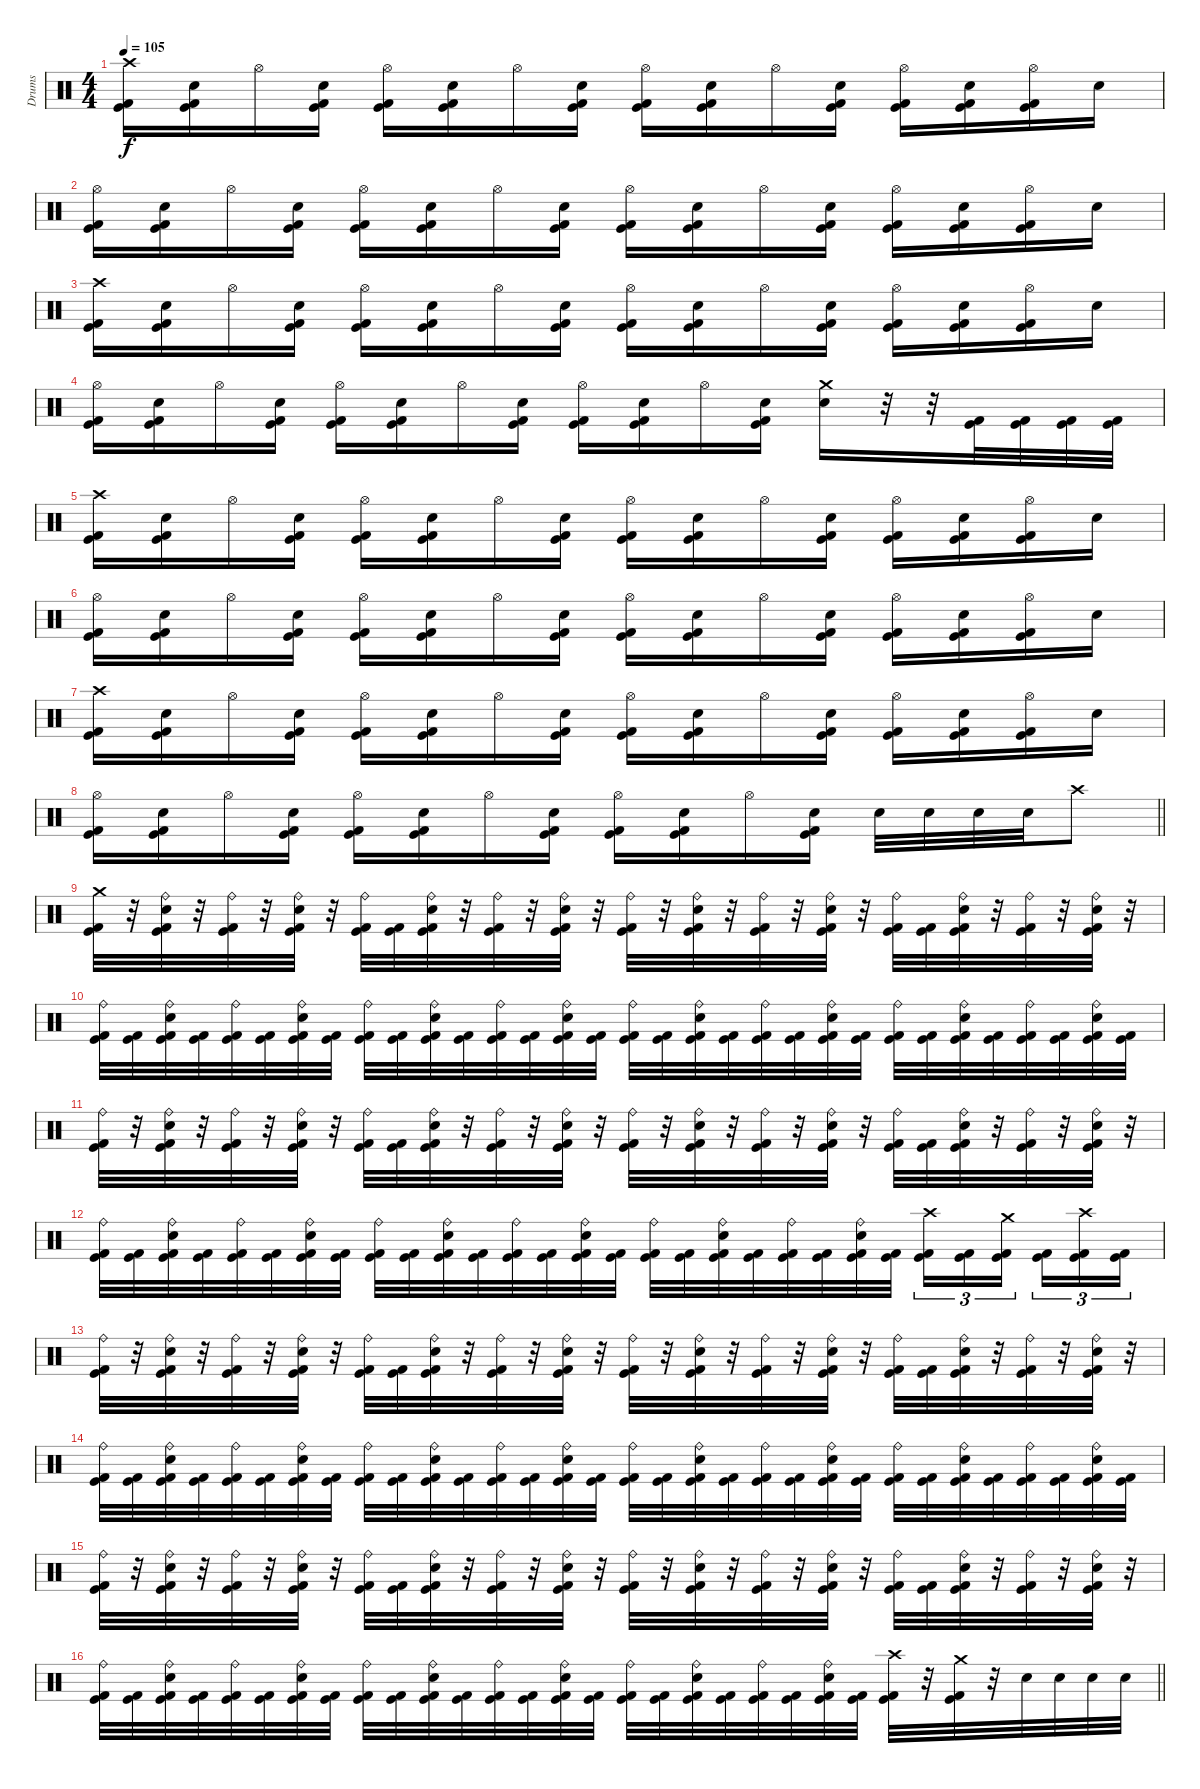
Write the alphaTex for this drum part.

\track ("Drums" "Drums") {instrument percussion}
\staff {score}
\articulation defaults
\ts (4 4)
\tempo 105
\clef neutral
\ks c
("Crash high (hit)" "Kick (hit)" "Kick (hit) 2").16{dy f} ("Electric Snare (hit)" "Kick (hit)" "Kick (hit) 2").16 "Hi-Hat (open)".16 ("Electric Snare (hit)" "Kick (hit)" "Kick (hit) 2").16 ("Hi-Hat (open)" "Kick (hit)" "Kick (hit) 2").16 ("Electric Snare (hit)" "Kick (hit)" "Kick (hit) 2").16 "Hi-Hat (open)".16 ("Electric Snare (hit)" "Kick (hit)" "Kick (hit) 2").16 ("Hi-Hat (open)" "Kick (hit)" "Kick (hit) 2").16 ("Electric Snare (hit)" "Kick (hit)" "Kick (hit) 2").16 "Hi-Hat (open)".16 ("Electric Snare (hit)" "Kick (hit)" "Kick (hit) 2").16 ("Hi-Hat (open)" "Kick (hit)" "Kick (hit) 2").16 ("Electric Snare (hit)" "Kick (hit)" "Kick (hit) 2").16 ("Hi-Hat (open)" "Kick (hit)" "Kick (hit) 2").16 "Electric Snare (hit)".16 |
("Hi-Hat (open)" "Kick (hit)" "Kick (hit) 2").16 ("Electric Snare (hit)" "Kick (hit)" "Kick (hit) 2").16 "Hi-Hat (open)".16 ("Electric Snare (hit)" "Kick (hit)" "Kick (hit) 2").16 ("Hi-Hat (open)" "Kick (hit)" "Kick (hit) 2").16 ("Electric Snare (hit)" "Kick (hit)" "Kick (hit) 2").16 "Hi-Hat (open)".16 ("Electric Snare (hit)" "Kick (hit)" "Kick (hit) 2").16 ("Hi-Hat (open)" "Kick (hit)" "Kick (hit) 2").16 ("Electric Snare (hit)" "Kick (hit)" "Kick (hit) 2").16 "Hi-Hat (open)".16 ("Electric Snare (hit)" "Kick (hit)" "Kick (hit) 2").16 ("Hi-Hat (open)" "Kick (hit)" "Kick (hit) 2").16 ("Electric Snare (hit)" "Kick (hit)" "Kick (hit) 2").16 ("Hi-Hat (open)" "Kick (hit)" "Kick (hit) 2").16 "Electric Snare (hit)".16 |
("Crash high (hit)" "Kick (hit)" "Kick (hit) 2").16 ("Electric Snare (hit)" "Kick (hit)" "Kick (hit) 2").16 "Hi-Hat (open)".16 ("Electric Snare (hit)" "Kick (hit)" "Kick (hit) 2").16 ("Hi-Hat (open)" "Kick (hit)" "Kick (hit) 2").16 ("Electric Snare (hit)" "Kick (hit)" "Kick (hit) 2").16 "Hi-Hat (open)".16 ("Electric Snare (hit)" "Kick (hit)" "Kick (hit) 2").16 ("Hi-Hat (open)" "Kick (hit)" "Kick (hit) 2").16 ("Electric Snare (hit)" "Kick (hit)" "Kick (hit) 2").16 "Hi-Hat (open)".16 ("Electric Snare (hit)" "Kick (hit)" "Kick (hit) 2").16 ("Hi-Hat (open)" "Kick (hit)" "Kick (hit) 2").16 ("Electric Snare (hit)" "Kick (hit)" "Kick (hit) 2").16 ("Hi-Hat (open)" "Kick (hit)" "Kick (hit) 2").16 "Electric Snare (hit)".16 |
("Hi-Hat (open)" "Kick (hit)" "Kick (hit) 2").16 ("Electric Snare (hit)" "Kick (hit)" "Kick (hit) 2").16 "Hi-Hat (open)".16 ("Electric Snare (hit)" "Kick (hit)" "Kick (hit) 2").16 ("Hi-Hat (open)" "Kick (hit)" "Kick (hit) 2").16 ("Electric Snare (hit)" "Kick (hit)" "Kick (hit) 2").16 "Hi-Hat (open)".16 ("Electric Snare (hit)" "Kick (hit)" "Kick (hit) 2").16 ("Hi-Hat (open)" "Kick (hit)" "Kick (hit) 2").16 ("Electric Snare (hit)" "Kick (hit)" "Kick (hit) 2").16 "Hi-Hat (open)".16 ("Electric Snare (hit)" "Kick (hit)" "Kick (hit) 2").16 ("Crash medium (hit)" "Electric Snare (hit)").16 r.32 r.32 ("Kick (hit)" "Kick (hit) 2").32 ("Kick (hit)" "Kick (hit) 2").32 ("Kick (hit)" "Kick (hit) 2").32 ("Kick (hit)" "Kick (hit) 2").32 |
("Crash high (hit)" "Kick (hit)" "Kick (hit) 2").16 ("Electric Snare (hit)" "Kick (hit)" "Kick (hit) 2").16 "Hi-Hat (open)".16 ("Electric Snare (hit)" "Kick (hit)" "Kick (hit) 2").16 ("Hi-Hat (open)" "Kick (hit)" "Kick (hit) 2").16 ("Electric Snare (hit)" "Kick (hit)" "Kick (hit) 2").16 "Hi-Hat (open)".16 ("Electric Snare (hit)" "Kick (hit)" "Kick (hit) 2").16 ("Hi-Hat (open)" "Kick (hit)" "Kick (hit) 2").16 ("Electric Snare (hit)" "Kick (hit)" "Kick (hit) 2").16 "Hi-Hat (open)".16 ("Electric Snare (hit)" "Kick (hit)" "Kick (hit) 2").16 ("Hi-Hat (open)" "Kick (hit)" "Kick (hit) 2").16 ("Electric Snare (hit)" "Kick (hit)" "Kick (hit) 2").16 ("Hi-Hat (open)" "Kick (hit)" "Kick (hit) 2").16 "Electric Snare (hit)".16 |
("Hi-Hat (open)" "Kick (hit)" "Kick (hit) 2").16 ("Electric Snare (hit)" "Kick (hit)" "Kick (hit) 2").16 "Hi-Hat (open)".16 ("Electric Snare (hit)" "Kick (hit)" "Kick (hit) 2").16 ("Hi-Hat (open)" "Kick (hit)" "Kick (hit) 2").16 ("Electric Snare (hit)" "Kick (hit)" "Kick (hit) 2").16 "Hi-Hat (open)".16 ("Electric Snare (hit)" "Kick (hit)" "Kick (hit) 2").16 ("Hi-Hat (open)" "Kick (hit)" "Kick (hit) 2").16 ("Electric Snare (hit)" "Kick (hit)" "Kick (hit) 2").16 "Hi-Hat (open)".16 ("Electric Snare (hit)" "Kick (hit)" "Kick (hit) 2").16 ("Hi-Hat (open)" "Kick (hit)" "Kick (hit) 2").16 ("Electric Snare (hit)" "Kick (hit)" "Kick (hit) 2").16 ("Hi-Hat (open)" "Kick (hit)" "Kick (hit) 2").16 "Electric Snare (hit)".16 |
("Crash high (hit)" "Kick (hit)" "Kick (hit) 2").16 ("Electric Snare (hit)" "Kick (hit)" "Kick (hit) 2").16 "Hi-Hat (open)".16 ("Electric Snare (hit)" "Kick (hit)" "Kick (hit) 2").16 ("Hi-Hat (open)" "Kick (hit)" "Kick (hit) 2").16 ("Electric Snare (hit)" "Kick (hit)" "Kick (hit) 2").16 "Hi-Hat (open)".16 ("Electric Snare (hit)" "Kick (hit)" "Kick (hit) 2").16 ("Hi-Hat (open)" "Kick (hit)" "Kick (hit) 2").16 ("Electric Snare (hit)" "Kick (hit)" "Kick (hit) 2").16 "Hi-Hat (open)".16 ("Electric Snare (hit)" "Kick (hit)" "Kick (hit) 2").16 ("Hi-Hat (open)" "Kick (hit)" "Kick (hit) 2").16 ("Electric Snare (hit)" "Kick (hit)" "Kick (hit) 2").16 ("Hi-Hat (open)" "Kick (hit)" "Kick (hit) 2").16 "Electric Snare (hit)".16 |
\barLineRight lightlight
("Hi-Hat (open)" "Kick (hit)" "Kick (hit) 2").16 ("Electric Snare (hit)" "Kick (hit)" "Kick (hit) 2").16 "Hi-Hat (open)".16 ("Electric Snare (hit)" "Kick (hit)" "Kick (hit) 2").16 ("Hi-Hat (open)" "Kick (hit)" "Kick (hit) 2").16 ("Electric Snare (hit)" "Kick (hit)" "Kick (hit) 2").16 "Hi-Hat (open)".16 ("Electric Snare (hit)" "Kick (hit)" "Kick (hit) 2").16 ("Hi-Hat (open)" "Kick (hit)" "Kick (hit) 2").16 ("Electric Snare (hit)" "Kick (hit)" "Kick (hit) 2").16 "Hi-Hat (open)".16 ("Electric Snare (hit)" "Kick (hit)" "Kick (hit) 2").16 "Electric Snare (hit)".32 "Electric Snare (hit)".32 "Electric Snare (hit)".32 "Electric Snare (hit)".32 "Crash high (hit)".8 |
("Crash medium (hit)" "Kick (hit)" "Kick (hit) 2").32 r.32 ("Ride (bell)" "Electric Snare (hit)" "Kick (hit)" "Kick (hit) 2").32 r.32 ("Ride (bell)" "Kick (hit)" "Kick (hit) 2").32 r.32 ("Ride (bell)" "Electric Snare (hit)" "Kick (hit)" "Kick (hit) 2").32 r.32 ("Ride (bell)" "Kick (hit)" "Kick (hit) 2").32 ("Kick (hit)" "Kick (hit) 2").32 ("Ride (bell)" "Electric Snare (hit)" "Kick (hit)" "Kick (hit) 2").32 r.32 ("Ride (bell)" "Kick (hit)" "Kick (hit) 2").32 r.32 ("Ride (bell)" "Electric Snare (hit)" "Kick (hit)" "Kick (hit) 2").32 r.32 ("Ride (bell)" "Kick (hit)" "Kick (hit) 2").32 r.32 ("Ride (bell)" "Electric Snare (hit)" "Kick (hit)" "Kick (hit) 2").32 r.32 ("Ride (bell)" "Kick (hit)" "Kick (hit) 2").32 r.32 ("Ride (bell)" "Electric Snare (hit)" "Kick (hit)" "Kick (hit) 2").32 r.32 ("Ride (bell)" "Kick (hit)" "Kick (hit) 2").32 ("Kick (hit)" "Kick (hit) 2").32 ("Ride (bell)" "Electric Snare (hit)" "Kick (hit)" "Kick (hit) 2").32 r.32 ("Ride (bell)" "Kick (hit)" "Kick (hit) 2").32 r.32 ("Ride (bell)" "Electric Snare (hit)" "Kick (hit)" "Kick (hit) 2").32 r.32 |
("Ride (bell)" "Kick (hit)" "Kick (hit) 2").32 ("Kick (hit)" "Kick (hit) 2").32 ("Ride (bell)" "Electric Snare (hit)" "Kick (hit)" "Kick (hit) 2").32 ("Kick (hit)" "Kick (hit) 2").32 ("Ride (bell)" "Kick (hit)" "Kick (hit) 2").32 ("Kick (hit)" "Kick (hit) 2").32 ("Ride (bell)" "Electric Snare (hit)" "Kick (hit)" "Kick (hit) 2").32 ("Kick (hit)" "Kick (hit) 2").32 ("Ride (bell)" "Kick (hit)" "Kick (hit) 2").32 ("Kick (hit)" "Kick (hit) 2").32 ("Ride (bell)" "Electric Snare (hit)" "Kick (hit)" "Kick (hit) 2").32 ("Kick (hit)" "Kick (hit) 2").32 ("Ride (bell)" "Kick (hit)" "Kick (hit) 2").32 ("Kick (hit)" "Kick (hit) 2").32 ("Ride (bell)" "Electric Snare (hit)" "Kick (hit)" "Kick (hit) 2").32 ("Kick (hit)" "Kick (hit) 2").32 ("Ride (bell)" "Kick (hit)" "Kick (hit) 2").32 ("Kick (hit)" "Kick (hit) 2").32 ("Ride (bell)" "Electric Snare (hit)" "Kick (hit)" "Kick (hit) 2").32 ("Kick (hit)" "Kick (hit) 2").32 ("Ride (bell)" "Kick (hit)" "Kick (hit) 2").32 ("Kick (hit)" "Kick (hit) 2").32 ("Ride (bell)" "Electric Snare (hit)" "Kick (hit)" "Kick (hit) 2").32 ("Kick (hit)" "Kick (hit) 2").32 ("Ride (bell)" "Kick (hit)" "Kick (hit) 2").32 ("Kick (hit)" "Kick (hit) 2").32 ("Ride (bell)" "Electric Snare (hit)" "Kick (hit)" "Kick (hit) 2").32 ("Kick (hit)" "Kick (hit) 2").32 ("Ride (bell)" "Kick (hit)" "Kick (hit) 2").32 ("Kick (hit)" "Kick (hit) 2").32 ("Ride (bell)" "Electric Snare (hit)" "Kick (hit)" "Kick (hit) 2").32 ("Kick (hit)" "Kick (hit) 2").32 |
("Ride (bell)" "Kick (hit)" "Kick (hit) 2").32 r.32 ("Ride (bell)" "Electric Snare (hit)" "Kick (hit)" "Kick (hit) 2").32 r.32 ("Ride (bell)" "Kick (hit)" "Kick (hit) 2").32 r.32 ("Ride (bell)" "Electric Snare (hit)" "Kick (hit)" "Kick (hit) 2").32 r.32 ("Ride (bell)" "Kick (hit)" "Kick (hit) 2").32 ("Kick (hit)" "Kick (hit) 2").32 ("Ride (bell)" "Electric Snare (hit)" "Kick (hit)" "Kick (hit) 2").32 r.32 ("Ride (bell)" "Kick (hit)" "Kick (hit) 2").32 r.32 ("Ride (bell)" "Electric Snare (hit)" "Kick (hit)" "Kick (hit) 2").32 r.32 ("Ride (bell)" "Kick (hit)" "Kick (hit) 2").32 r.32 ("Ride (bell)" "Electric Snare (hit)" "Kick (hit)" "Kick (hit) 2").32 r.32 ("Ride (bell)" "Kick (hit)" "Kick (hit) 2").32 r.32 ("Ride (bell)" "Electric Snare (hit)" "Kick (hit)" "Kick (hit) 2").32 r.32 ("Ride (bell)" "Kick (hit)" "Kick (hit) 2").32 ("Kick (hit)" "Kick (hit) 2").32 ("Ride (bell)" "Electric Snare (hit)" "Kick (hit)" "Kick (hit) 2").32 r.32 ("Ride (bell)" "Kick (hit)" "Kick (hit) 2").32 r.32 ("Ride (bell)" "Electric Snare (hit)" "Kick (hit)" "Kick (hit) 2").32 r.32 |
("Ride (bell)" "Kick (hit)" "Kick (hit) 2").32 ("Kick (hit)" "Kick (hit) 2").32 ("Ride (bell)" "Electric Snare (hit)" "Kick (hit)" "Kick (hit) 2").32 ("Kick (hit)" "Kick (hit) 2").32 ("Ride (bell)" "Kick (hit)" "Kick (hit) 2").32 ("Kick (hit)" "Kick (hit) 2").32 ("Ride (bell)" "Electric Snare (hit)" "Kick (hit)" "Kick (hit) 2").32 ("Kick (hit)" "Kick (hit) 2").32 ("Ride (bell)" "Kick (hit)" "Kick (hit) 2").32 ("Kick (hit)" "Kick (hit) 2").32 ("Ride (bell)" "Electric Snare (hit)" "Kick (hit)" "Kick (hit) 2").32 ("Kick (hit)" "Kick (hit) 2").32 ("Ride (bell)" "Kick (hit)" "Kick (hit) 2").32 ("Kick (hit)" "Kick (hit) 2").32 ("Ride (bell)" "Electric Snare (hit)" "Kick (hit)" "Kick (hit) 2").32 ("Kick (hit)" "Kick (hit) 2").32 ("Ride (bell)" "Kick (hit)" "Kick (hit) 2").32 ("Kick (hit)" "Kick (hit) 2").32 ("Ride (bell)" "Electric Snare (hit)" "Kick (hit)" "Kick (hit) 2").32 ("Kick (hit)" "Kick (hit) 2").32 ("Ride (bell)" "Kick (hit)" "Kick (hit) 2").32 ("Kick (hit)" "Kick (hit) 2").32 ("Ride (bell)" "Electric Snare (hit)" "Kick (hit)" "Kick (hit) 2").32 ("Kick (hit)" "Kick (hit) 2").32 ("Crash high (hit)" "Kick (hit)" "Kick (hit) 2").16{tu (3 2)} ("Kick (hit)" "Kick (hit) 2").16{tu (3 2)} ("Crash medium (hit)" "Kick (hit)" "Kick (hit) 2").16{tu (3 2) beam splitsecondary} ("Kick (hit)" "Kick (hit) 2").16{tu (3 2)} ("Crash high (hit)" "Kick (hit)" "Kick (hit) 2").16{tu (3 2)} ("Kick (hit)" "Kick (hit) 2").16{tu (3 2)} |
("Ride (bell)" "Kick (hit)" "Kick (hit) 2").32 r.32 ("Ride (bell)" "Electric Snare (hit)" "Kick (hit)" "Kick (hit) 2").32 r.32 ("Ride (bell)" "Kick (hit)" "Kick (hit) 2").32 r.32 ("Ride (bell)" "Electric Snare (hit)" "Kick (hit)" "Kick (hit) 2").32 r.32 ("Ride (bell)" "Kick (hit)" "Kick (hit) 2").32 ("Kick (hit)" "Kick (hit) 2").32 ("Ride (bell)" "Electric Snare (hit)" "Kick (hit)" "Kick (hit) 2").32 r.32 ("Ride (bell)" "Kick (hit)" "Kick (hit) 2").32 r.32 ("Ride (bell)" "Electric Snare (hit)" "Kick (hit)" "Kick (hit) 2").32 r.32 ("Ride (bell)" "Kick (hit)" "Kick (hit) 2").32 r.32 ("Ride (bell)" "Electric Snare (hit)" "Kick (hit)" "Kick (hit) 2").32 r.32 ("Ride (bell)" "Kick (hit)" "Kick (hit) 2").32 r.32 ("Ride (bell)" "Electric Snare (hit)" "Kick (hit)" "Kick (hit) 2").32 r.32 ("Ride (bell)" "Kick (hit)" "Kick (hit) 2").32 ("Kick (hit)" "Kick (hit) 2").32 ("Ride (bell)" "Electric Snare (hit)" "Kick (hit)" "Kick (hit) 2").32 r.32 ("Ride (bell)" "Kick (hit)" "Kick (hit) 2").32 r.32 ("Ride (bell)" "Electric Snare (hit)" "Kick (hit)" "Kick (hit) 2").32 r.32 |
("Ride (bell)" "Kick (hit)" "Kick (hit) 2").32 ("Kick (hit)" "Kick (hit) 2").32 ("Ride (bell)" "Electric Snare (hit)" "Kick (hit)" "Kick (hit) 2").32 ("Kick (hit)" "Kick (hit) 2").32 ("Ride (bell)" "Kick (hit)" "Kick (hit) 2").32 ("Kick (hit)" "Kick (hit) 2").32 ("Ride (bell)" "Electric Snare (hit)" "Kick (hit)" "Kick (hit) 2").32 ("Kick (hit)" "Kick (hit) 2").32 ("Ride (bell)" "Kick (hit)" "Kick (hit) 2").32 ("Kick (hit)" "Kick (hit) 2").32 ("Ride (bell)" "Electric Snare (hit)" "Kick (hit)" "Kick (hit) 2").32 ("Kick (hit)" "Kick (hit) 2").32 ("Ride (bell)" "Kick (hit)" "Kick (hit) 2").32 ("Kick (hit)" "Kick (hit) 2").32 ("Ride (bell)" "Electric Snare (hit)" "Kick (hit)" "Kick (hit) 2").32 ("Kick (hit)" "Kick (hit) 2").32 ("Ride (bell)" "Kick (hit)" "Kick (hit) 2").32 ("Kick (hit)" "Kick (hit) 2").32 ("Ride (bell)" "Electric Snare (hit)" "Kick (hit)" "Kick (hit) 2").32 ("Kick (hit)" "Kick (hit) 2").32 ("Ride (bell)" "Kick (hit)" "Kick (hit) 2").32 ("Kick (hit)" "Kick (hit) 2").32 ("Ride (bell)" "Electric Snare (hit)" "Kick (hit)" "Kick (hit) 2").32 ("Kick (hit)" "Kick (hit) 2").32 ("Ride (bell)" "Kick (hit)" "Kick (hit) 2").32 ("Kick (hit)" "Kick (hit) 2").32 ("Ride (bell)" "Electric Snare (hit)" "Kick (hit)" "Kick (hit) 2").32 ("Kick (hit)" "Kick (hit) 2").32 ("Ride (bell)" "Kick (hit)" "Kick (hit) 2").32 ("Kick (hit)" "Kick (hit) 2").32 ("Ride (bell)" "Electric Snare (hit)" "Kick (hit)" "Kick (hit) 2").32 ("Kick (hit)" "Kick (hit) 2").32 |
("Ride (bell)" "Kick (hit)" "Kick (hit) 2").32 r.32 ("Ride (bell)" "Electric Snare (hit)" "Kick (hit)" "Kick (hit) 2").32 r.32 ("Ride (bell)" "Kick (hit)" "Kick (hit) 2").32 r.32 ("Ride (bell)" "Electric Snare (hit)" "Kick (hit)" "Kick (hit) 2").32 r.32 ("Ride (bell)" "Kick (hit)" "Kick (hit) 2").32 ("Kick (hit)" "Kick (hit) 2").32 ("Ride (bell)" "Electric Snare (hit)" "Kick (hit)" "Kick (hit) 2").32 r.32 ("Ride (bell)" "Kick (hit)" "Kick (hit) 2").32 r.32 ("Ride (bell)" "Electric Snare (hit)" "Kick (hit)" "Kick (hit) 2").32 r.32 ("Ride (bell)" "Kick (hit)" "Kick (hit) 2").32 r.32 ("Ride (bell)" "Electric Snare (hit)" "Kick (hit)" "Kick (hit) 2").32 r.32 ("Ride (bell)" "Kick (hit)" "Kick (hit) 2").32 r.32 ("Ride (bell)" "Electric Snare (hit)" "Kick (hit)" "Kick (hit) 2").32 r.32 ("Ride (bell)" "Kick (hit)" "Kick (hit) 2").32 ("Kick (hit)" "Kick (hit) 2").32 ("Ride (bell)" "Electric Snare (hit)" "Kick (hit)" "Kick (hit) 2").32 r.32 ("Ride (bell)" "Kick (hit)" "Kick (hit) 2").32 r.32 ("Ride (bell)" "Electric Snare (hit)" "Kick (hit)" "Kick (hit) 2").32 r.32 |
\barLineRight lightlight
("Ride (bell)" "Kick (hit)" "Kick (hit) 2").32 ("Kick (hit)" "Kick (hit) 2").32 ("Ride (bell)" "Electric Snare (hit)" "Kick (hit)" "Kick (hit) 2").32 ("Kick (hit)" "Kick (hit) 2").32 ("Ride (bell)" "Kick (hit)" "Kick (hit) 2").32 ("Kick (hit)" "Kick (hit) 2").32 ("Ride (bell)" "Electric Snare (hit)" "Kick (hit)" "Kick (hit) 2").32 ("Kick (hit)" "Kick (hit) 2").32 ("Ride (bell)" "Kick (hit)" "Kick (hit) 2").32 ("Kick (hit)" "Kick (hit) 2").32 ("Ride (bell)" "Electric Snare (hit)" "Kick (hit)" "Kick (hit) 2").32 ("Kick (hit)" "Kick (hit) 2").32 ("Ride (bell)" "Kick (hit)" "Kick (hit) 2").32 ("Kick (hit)" "Kick (hit) 2").32 ("Ride (bell)" "Electric Snare (hit)" "Kick (hit)" "Kick (hit) 2").32 ("Kick (hit)" "Kick (hit) 2").32 ("Ride (bell)" "Kick (hit)" "Kick (hit) 2").32 ("Kick (hit)" "Kick (hit) 2").32 ("Ride (bell)" "Electric Snare (hit)" "Kick (hit)" "Kick (hit) 2").32 ("Kick (hit)" "Kick (hit) 2").32 ("Ride (bell)" "Kick (hit)" "Kick (hit) 2").32 ("Kick (hit)" "Kick (hit) 2").32 ("Ride (bell)" "Electric Snare (hit)" "Kick (hit)" "Kick (hit) 2").32 ("Kick (hit)" "Kick (hit) 2").32 ("Crash high (hit)" "Kick (hit)" "Kick (hit) 2").32 r.32 ("Crash medium (hit)" "Kick (hit)" "Kick (hit) 2").32 r.32 "Electric Snare (hit)".32 "Electric Snare (hit)".32 "Electric Snare (hit)".32 "Electric Snare (hit)".32
